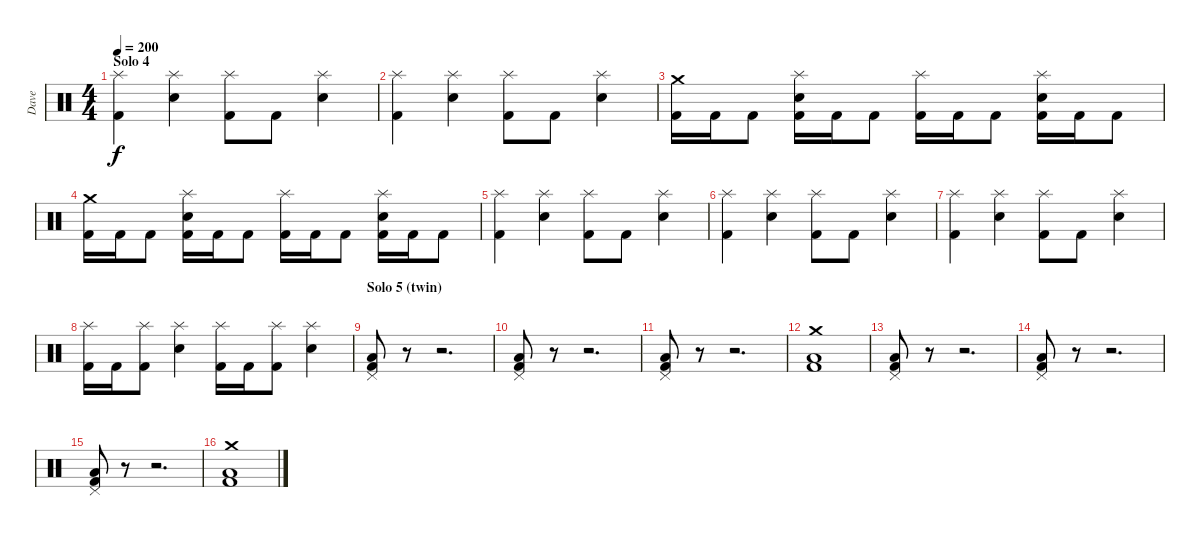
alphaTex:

\track ("Dave" "Dave") {instrument percussion}
\staff {score}
\articulation defaults
\ts (4 4)
\section ("" "Solo 4")
\tempo 200
\clef neutral
\ks c
("Splash (hit)" "Kick (hit) 2").4{dy f} ("Splash (hit)" "Snare (hit) 2").4 ("Splash (hit)" "Kick (hit) 2").8 "Kick (hit) 2".8 ("Splash (hit)" "Snare (hit) 2").4 |
("Splash (hit)" "Kick (hit) 2").4 ("Splash (hit)" "Snare (hit) 2").4 ("Splash (hit)" "Kick (hit) 2").8 "Kick (hit) 2".8 ("Splash (hit)" "Snare (hit) 2").4 |
("Crash medium (hit)" "Kick (hit) 2").16 "Kick (hit) 2".16 "Kick (hit) 2".8 ("Splash (hit)" "Snare (hit) 2" "Kick (hit) 2").16 "Kick (hit) 2".16 "Kick (hit) 2".8 ("Splash (hit)" "Kick (hit) 2").16 "Kick (hit) 2".16 "Kick (hit) 2".8 ("Splash (hit)" "Snare (hit) 2" "Kick (hit) 2").16 "Kick (hit) 2".16 "Kick (hit) 2".8 |
("Crash medium (hit)" "Kick (hit) 2").16 "Kick (hit) 2".16 "Kick (hit) 2".8 ("Splash (hit)" "Snare (hit) 2" "Kick (hit) 2").16 "Kick (hit) 2".16 "Kick (hit) 2".8 ("Splash (hit)" "Kick (hit) 2").16 "Kick (hit) 2".16 "Kick (hit) 2".8 ("Splash (hit)" "Snare (hit) 2" "Kick (hit) 2").16 "Kick (hit) 2".16 "Kick (hit) 2".8 |
("Splash (hit)" "Kick (hit) 2").4 ("Splash (hit)" "Snare (hit) 2").4 ("Splash (hit)" "Kick (hit) 2").8 "Kick (hit) 2".8 ("Splash (hit)" "Snare (hit) 2").4 |
("Splash (hit)" "Kick (hit) 2").4 ("Splash (hit)" "Snare (hit) 2").4 ("Splash (hit)" "Kick (hit) 2").8 "Kick (hit) 2".8 ("Splash (hit)" "Snare (hit) 2").4 |
("Splash (hit)" "Kick (hit) 2").4 ("Splash (hit)" "Snare (hit) 2").4 ("Splash (hit)" "Kick (hit) 2").8 "Kick (hit) 2".8 ("Splash (hit)" "Snare (hit) 2").4 |
("Splash (hit)" "Kick (hit) 2").16 "Kick (hit) 2".16 ("Splash (hit)" "Kick (hit) 2").8 ("Splash (hit)" "Snare (hit) 2").4 ("Splash (hit)" "Kick (hit) 2").16 "Kick (hit) 2".16 ("Splash (hit)" "Kick (hit) 2").8 ("Splash (hit)" "Snare (hit) 2").4 |
\section ("" "Solo 5 (twin)")
("Pedal Hi-Hat (hit)" "Kick (hit) 2" "Low Floor Tom (hit)").8 r.8 r.2{d} |
("Pedal Hi-Hat (hit)" "Kick (hit) 2" "Low Floor Tom (hit)").8 r.8 r.2{d} |
("Pedal Hi-Hat (hit)" "Kick (hit) 2" "Low Floor Tom (hit)").8 r.8 r.2{d} |
("Crash medium (hit)" "Kick (hit) 2" "Low Floor Tom (hit)").1 |
("Pedal Hi-Hat (hit)" "Kick (hit) 2" "Low Floor Tom (hit)").8 r.8 r.2{d} |
("Pedal Hi-Hat (hit)" "Kick (hit) 2" "Low Floor Tom (hit)").8 r.8 r.2{d} |
("Pedal Hi-Hat (hit)" "Kick (hit) 2" "Low Floor Tom (hit)").8 r.8 r.2{d} |
("Crash medium (hit)" "Kick (hit) 2" "Low Floor Tom (hit)").1
